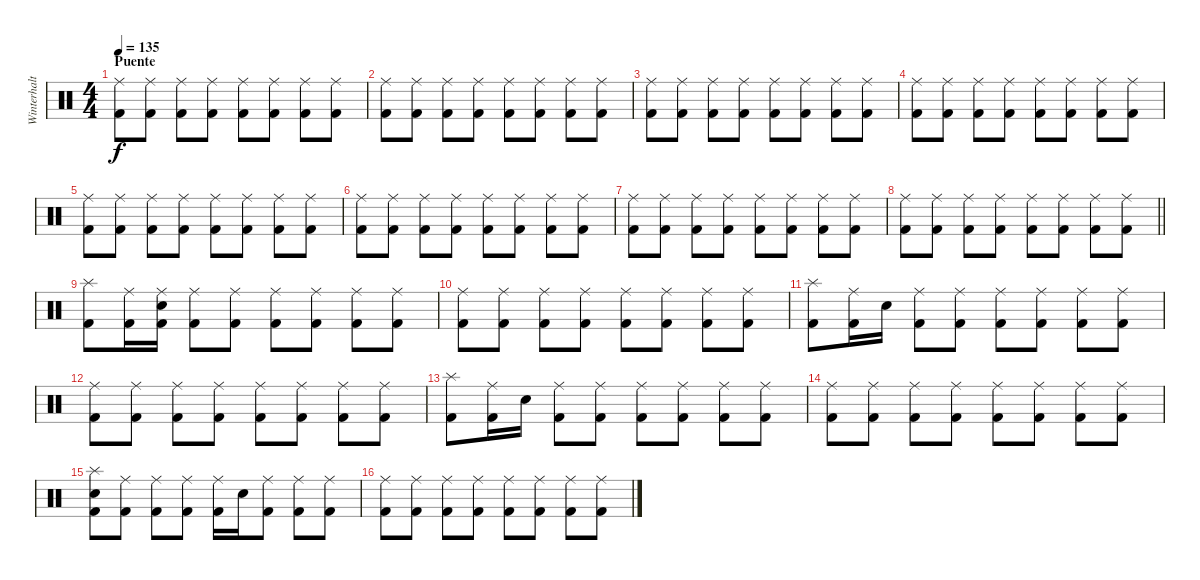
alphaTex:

\track ("Winterhalter" "Winterhalt") {instrument percussion}
\staff {score}
\articulation defaults
\ts (4 4)
\section ("" "Puente")
\tempo 135
\clef neutral
\ks c
("Ride (middle)" "Kick (hit) 2").8{dy f} ("Ride (middle)" "Kick (hit) 2").8 ("Ride (middle)" "Kick (hit) 2").8 ("Ride (middle)" "Kick (hit) 2").8 ("Ride (middle)" "Kick (hit) 2").8 ("Ride (middle)" "Kick (hit) 2").8 ("Ride (middle)" "Kick (hit) 2").8 ("Ride (middle)" "Kick (hit) 2").8 |
("Ride (middle)" "Kick (hit) 2").8 ("Ride (middle)" "Kick (hit) 2").8 ("Ride (middle)" "Kick (hit) 2").8 ("Ride (middle)" "Kick (hit) 2").8 ("Ride (middle)" "Kick (hit) 2").8 ("Ride (middle)" "Kick (hit) 2").8 ("Ride (middle)" "Kick (hit) 2").8 ("Ride (middle)" "Kick (hit) 2").8 |
("Ride (middle)" "Kick (hit) 2").8 ("Ride (middle)" "Kick (hit) 2").8 ("Ride (middle)" "Kick (hit) 2").8 ("Ride (middle)" "Kick (hit) 2").8 ("Ride (middle)" "Kick (hit) 2").8 ("Ride (middle)" "Kick (hit) 2").8 ("Ride (middle)" "Kick (hit) 2").8 ("Ride (middle)" "Kick (hit) 2").8 |
("Ride (middle)" "Kick (hit) 2").8 ("Ride (middle)" "Kick (hit) 2").8 ("Ride (middle)" "Kick (hit) 2").8 ("Ride (middle)" "Kick (hit) 2").8 ("Ride (middle)" "Kick (hit) 2").8 ("Ride (middle)" "Kick (hit) 2").8 ("Ride (middle)" "Kick (hit) 2").8 ("Ride (middle)" "Kick (hit) 2").8 |
("Ride (middle)" "Kick (hit) 2").8 ("Ride (middle)" "Kick (hit) 2").8 ("Ride (middle)" "Kick (hit) 2").8 ("Ride (middle)" "Kick (hit) 2").8 ("Ride (middle)" "Kick (hit) 2").8 ("Ride (middle)" "Kick (hit) 2").8 ("Ride (middle)" "Kick (hit) 2").8 ("Ride (middle)" "Kick (hit) 2").8 |
("Ride (middle)" "Kick (hit) 2").8 ("Ride (middle)" "Kick (hit) 2").8 ("Ride (middle)" "Kick (hit) 2").8 ("Ride (middle)" "Kick (hit) 2").8 ("Ride (middle)" "Kick (hit) 2").8 ("Ride (middle)" "Kick (hit) 2").8 ("Ride (middle)" "Kick (hit) 2").8 ("Ride (middle)" "Kick (hit) 2").8 |
("Ride (middle)" "Kick (hit) 2").8 ("Ride (middle)" "Kick (hit) 2").8 ("Ride (middle)" "Kick (hit) 2").8 ("Ride (middle)" "Kick (hit) 2").8 ("Ride (middle)" "Kick (hit) 2").8 ("Ride (middle)" "Kick (hit) 2").8 ("Ride (middle)" "Kick (hit) 2").8 ("Ride (middle)" "Kick (hit) 2").8 |
\barLineRight lightlight
("Ride (middle)" "Kick (hit) 2").8 ("Ride (middle)" "Kick (hit) 2").8 ("Ride (middle)" "Kick (hit) 2").8 ("Ride (middle)" "Kick (hit) 2").8 ("Ride (middle)" "Kick (hit) 2").8 ("Ride (middle)" "Kick (hit) 2").8 ("Ride (middle)" "Kick (hit) 2").8 ("Ride (middle)" "Kick (hit) 2").8 |
("Splash (hit)" "Kick (hit) 2").8 ("Ride (middle)" "Kick (hit) 2").16 ("Ride (middle)" "Snare (hit) 2" "Kick (hit) 2").16 ("Ride (middle)" "Kick (hit) 2").8 ("Ride (middle)" "Kick (hit) 2").8 ("Ride (middle)" "Kick (hit) 2").8 ("Ride (middle)" "Kick (hit) 2").8 ("Ride (middle)" "Kick (hit) 2").8 ("Ride (middle)" "Kick (hit) 2").8 |
("Ride (middle)" "Kick (hit) 2").8 ("Ride (middle)" "Kick (hit) 2").8 ("Ride (middle)" "Kick (hit) 2").8 ("Ride (middle)" "Kick (hit) 2").8 ("Ride (middle)" "Kick (hit) 2").8 ("Ride (middle)" "Kick (hit) 2").8 ("Ride (middle)" "Kick (hit) 2").8 ("Ride (middle)" "Kick (hit) 2").8 |
("Splash (hit)" "Kick (hit) 2").8 ("Ride (middle)" "Kick (hit) 2").16 "Snare (hit) 2".16 ("Ride (middle)" "Kick (hit) 2").8 ("Ride (middle)" "Kick (hit) 2").8 ("Ride (middle)" "Kick (hit) 2").8 ("Ride (middle)" "Kick (hit) 2").8 ("Ride (middle)" "Kick (hit) 2").8 ("Ride (middle)" "Kick (hit) 2").8 |
("Ride (middle)" "Kick (hit) 2").8 ("Ride (middle)" "Kick (hit) 2").8 ("Ride (middle)" "Kick (hit) 2").8 ("Ride (middle)" "Kick (hit) 2").8 ("Ride (middle)" "Kick (hit) 2").8 ("Ride (middle)" "Kick (hit) 2").8 ("Ride (middle)" "Kick (hit) 2").8 ("Ride (middle)" "Kick (hit) 2").8 |
("Splash (hit)" "Kick (hit) 2").8 ("Ride (middle)" "Kick (hit) 2").16 "Snare (hit) 2".16 ("Ride (middle)" "Kick (hit) 2").8 ("Ride (middle)" "Kick (hit) 2").8 ("Ride (middle)" "Kick (hit) 2").8 ("Ride (middle)" "Kick (hit) 2").8 ("Ride (middle)" "Kick (hit) 2").8 ("Ride (middle)" "Kick (hit) 2").8 |
("Ride (middle)" "Kick (hit) 2").8 ("Ride (middle)" "Kick (hit) 2").8 ("Ride (middle)" "Kick (hit) 2").8 ("Ride (middle)" "Kick (hit) 2").8 ("Ride (middle)" "Kick (hit) 2").8 ("Ride (middle)" "Kick (hit) 2").8 ("Ride (middle)" "Kick (hit) 2").8 ("Ride (middle)" "Kick (hit) 2").8 |
("Splash (hit)" "Snare (hit) 2" "Kick (hit) 2").8 ("Ride (middle)" "Kick (hit) 2").8 ("Ride (middle)" "Kick (hit) 2").8 ("Ride (middle)" "Kick (hit) 2").8 ("Ride (middle)" "Kick (hit) 2").16 "Snare (hit) 2".16 ("Ride (middle)" "Kick (hit) 2").8 ("Ride (middle)" "Kick (hit) 2").8 ("Ride (middle)" "Kick (hit) 2").8 |
("Ride (middle)" "Kick (hit) 2").8 ("Ride (middle)" "Kick (hit) 2").8 ("Ride (middle)" "Kick (hit) 2").8 ("Ride (middle)" "Kick (hit) 2").8 ("Ride (middle)" "Kick (hit) 2").8 ("Ride (middle)" "Kick (hit) 2").8 ("Ride (middle)" "Kick (hit) 2").8 ("Ride (middle)" "Kick (hit) 2").8
